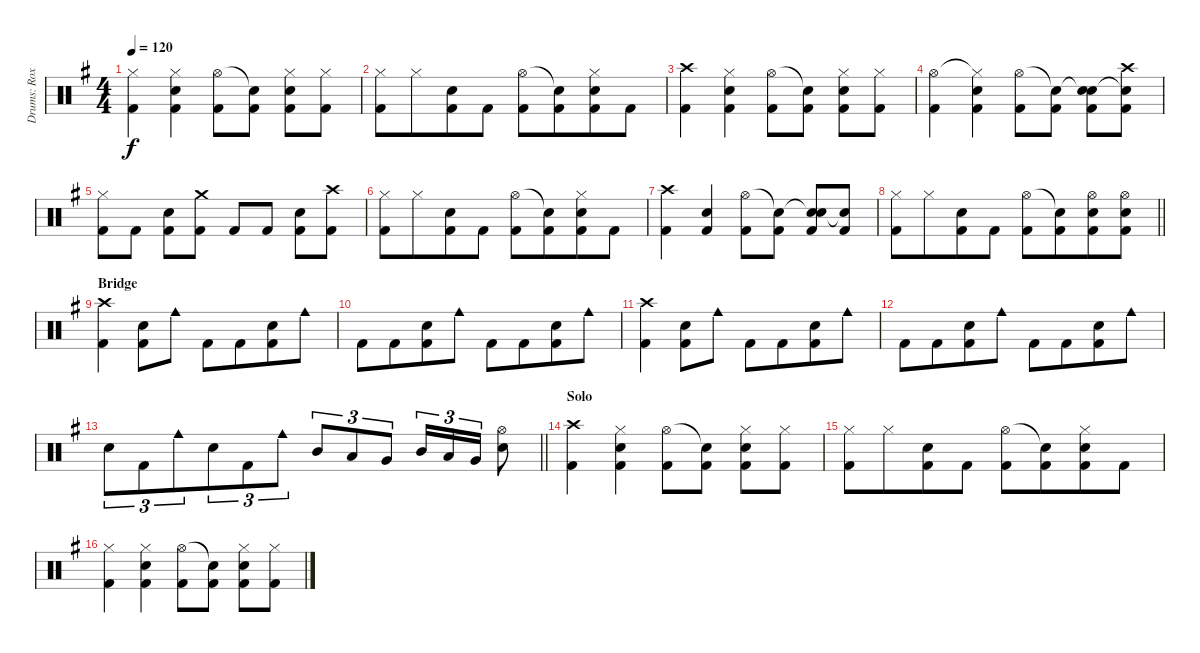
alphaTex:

\track ("Drums: Roxy" "Drums: Rox") {instrument percussion}
\staff {score}
\articulation defaults
\ts (4 4)
\tempo 120
\clef neutral
\ks g
("Hi-Hat (closed)" "Kick (hit) 2").4{dy f} ("Hi-Hat (closed)" "Snare (hit) 2" "Kick (hit) 2").4 ("Hi-Hat (open)" "Kick (hit) 2").8 ("Snare (hit)"{t} "Kick (hit) 2").8 ("Hi-Hat (closed)" "Snare (hit) 2" "Kick (hit) 2").8 ("Hi-Hat (closed)" "Kick (hit) 2").8 |
("Hi-Hat (closed)" "Kick (hit) 2").8 "Hi-Hat (closed)".8{beam merge} ("Snare (hit) 2" "Kick (hit) 2").8 "Kick (hit) 2".8 ("Hi-Hat (open)" "Kick (hit) 2").8 ("Snare (hit)"{t} "Kick (hit) 2").8{beam merge} ("Hi-Hat (closed)" "Snare (hit) 2" "Kick (hit) 2").8 "Kick (hit) 2".8 |
("Crash high (hit)" "Kick (hit) 2").4 ("Hi-Hat (closed)" "Snare (hit) 2" "Kick (hit) 2").4 ("Hi-Hat (open)" "Kick (hit) 2").8 ("Snare (hit)"{t} "Kick (hit) 2").8 ("Hi-Hat (closed)" "Snare (hit) 2" "Kick (hit) 2").8 ("Hi-Hat (closed)" "Kick (hit) 2").8 |
("Hi-Hat (open)" "Kick (hit) 2").4 ("Hi-Hat (closed)"{t} "Snare (hit) 2" "Kick (hit) 2").4 ("Hi-Hat (open)" "Kick (hit) 2").8 ("Snare (hit)"{t} "Kick (hit) 2").8 ("Snare (hit)"{t} "Snare (hit) 2" "Kick (hit) 2").8 ("Crash high (hit)" "Snare (hit)"{t} "Kick (hit) 2").8 |
("Hi-Hat (closed)" "Kick (hit) 2").8 "Kick (hit) 2".8 ("Snare (hit) 2" "Kick (hit) 2").8 ("Crash medium (hit)" "Kick (hit) 2").8 "Kick (hit) 2".8 "Kick (hit) 2".8 ("Snare (hit) 2" "Kick (hit) 2").8 ("Crash high (hit)" "Kick (hit) 2").8 |
("Hi-Hat (closed)" "Kick (hit) 2").8 "Hi-Hat (closed)".8{beam merge} ("Snare (hit) 2" "Kick (hit) 2").8 "Kick (hit) 2".8 ("Hi-Hat (open)" "Kick (hit) 2").8 ("Snare (hit)"{t} "Kick (hit) 2").8{beam merge} ("Hi-Hat (closed)" "Snare (hit) 2" "Kick (hit) 2").8 "Kick (hit) 2".8 |
("Crash high (hit)" "Kick (hit) 2").4 ("Snare (hit) 2" "Kick (hit) 2").4 ("Hi-Hat (open)" "Kick (hit) 2").8 ("Snare (hit)"{t} "Kick (hit) 2").8 ("Snare (hit)"{t} "Snare (hit) 2" "Kick (hit) 2").8 ("Snare (hit)"{t} "Kick (hit) 2").8 |
\barLineRight lightlight
("Hi-Hat (closed)" "Kick (hit) 2").8 "Hi-Hat (closed)".8{beam merge} ("Snare (hit) 2" "Kick (hit) 2").8 "Kick (hit) 2".8 ("Hi-Hat (open)" "Kick (hit) 2").8 ("Snare (hit)"{t} "Kick (hit) 2").8{beam merge} ("Hi-Hat (open)" "Snare (hit) 2" "Kick (hit) 2").8{beam merge} ("Hi-Hat (open)" "Snare (hit) 2" "Kick (hit) 2").8 |
\section ("" "Bridge")
("Crash high (hit)" "Kick (hit) 2").4 ("Snare (hit) 2" "Kick (hit) 2").8 "Cowbell medium (hit)".8{beam split} "Kick (hit) 2".8 "Kick (hit) 2".8{beam merge} ("Snare (hit) 2" "Kick (hit) 2").8 "Cowbell medium (hit)".8 |
"Kick (hit) 2".8 "Kick (hit) 2".8{beam merge} ("Snare (hit) 2" "Kick (hit) 2").8 "Cowbell medium (hit)".8 "Kick (hit) 2".8 "Kick (hit) 2".8{beam merge} ("Snare (hit) 2" "Kick (hit) 2").8 "Cowbell medium (hit)".8 |
("Crash high (hit)" "Kick (hit) 2").4 ("Snare (hit) 2" "Kick (hit) 2").8 "Cowbell medium (hit)".8{beam split} "Kick (hit) 2".8 "Kick (hit) 2".8{beam merge} ("Snare (hit) 2" "Kick (hit) 2").8 "Cowbell medium (hit)".8 |
"Kick (hit) 2".8 "Kick (hit) 2".8{beam merge} ("Snare (hit) 2" "Kick (hit) 2").8 "Cowbell medium (hit)".8 "Kick (hit) 2".8 "Kick (hit) 2".8{beam merge} ("Snare (hit) 2" "Kick (hit) 2").8 "Cowbell medium (hit)".8 |
\barLineRight lightlight "Snare (hit) 2".8{tu (3 2)} "Kick (hit) 2".8{tu (3 2)} "Cowbell medium (hit)".8{tu (3 2) beam merge} "Snare (hit) 2".8{tu (3 2)} "Kick (hit) 2".8{tu (3 2)} "Cowbell medium (hit)".8{tu (3 2)} "Mid Tom (hit)".8{tu (3 2)} "Low Tom (hit)".8{tu (3 2)} "Very Low Tom (hit)".8{tu (3 2)} "Mid Tom (hit)".16{tu (3 2)} "Low Tom (hit)".16{tu (3 2)} "Very Low Tom (hit)".16{tu (3 2)}
("Hi-Hat (open)" "Electric Snare (hit)").8 |
\section ("" "Solo")
("Crash high (hit)" "Kick (hit) 2").4 ("Hi-Hat (closed)" "Snare (hit) 2" "Kick (hit) 2").4 ("Hi-Hat (open)" "Kick (hit) 2").8 ("Snare (hit)"{t} "Kick (hit) 2").8 ("Hi-Hat (closed)" "Snare (hit) 2" "Kick (hit) 2").8 ("Hi-Hat (closed)" "Kick (hit) 2").8 |
("Hi-Hat (closed)" "Kick (hit) 2").8 "Hi-Hat (closed)".8{beam merge} ("Snare (hit) 2" "Kick (hit) 2").8 "Kick (hit) 2".8 ("Hi-Hat (open)" "Kick (hit) 2").8 ("Snare (hit)"{t} "Kick (hit) 2").8{beam merge} ("Hi-Hat (closed)" "Snare (hit) 2" "Kick (hit) 2").8 "Kick (hit) 2".8 |
("Hi-Hat (closed)" "Kick (hit) 2").4 ("Hi-Hat (closed)" "Snare (hit) 2" "Kick (hit) 2").4 ("Hi-Hat (open)" "Kick (hit) 2").8 ("Snare (hit)"{t} "Kick (hit) 2").8 ("Hi-Hat (closed)" "Snare (hit) 2" "Kick (hit) 2").8 ("Hi-Hat (closed)" "Kick (hit) 2").8
